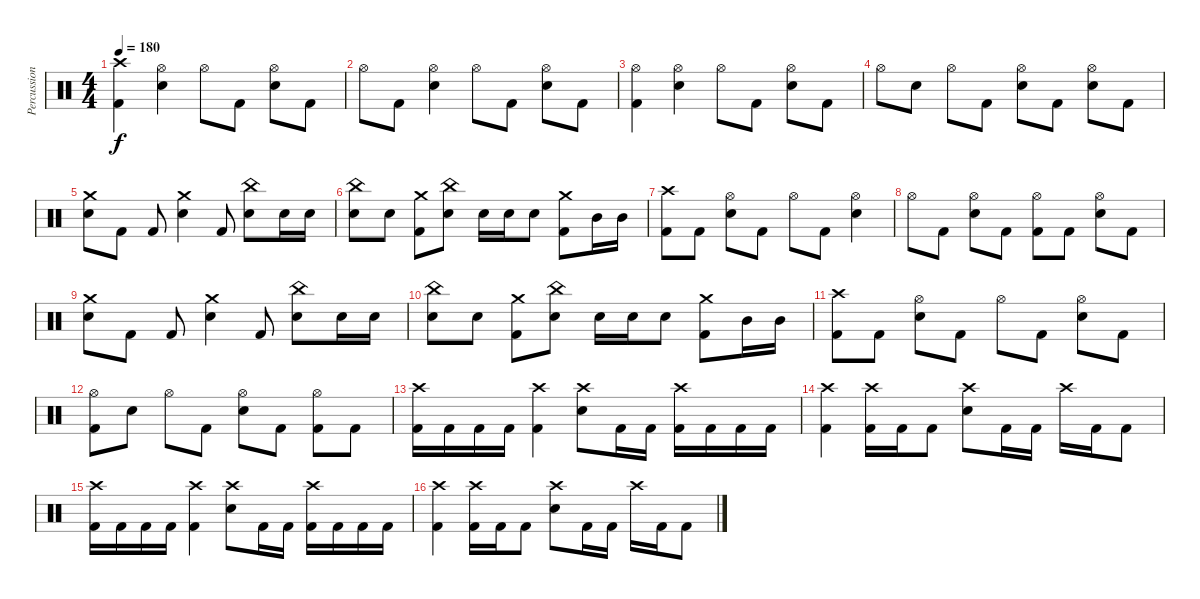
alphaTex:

\track ("Percussion" "Percussion") {instrument percussion}
\staff {score}
\articulation defaults
\ts (4 4)
\tempo 180
\clef neutral
\ks c
("Crash high (hit)" "Kick (hit) 2").4{dy f} ("Hi-Hat (open)" "Electric Snare (hit)").4 "Hi-Hat (open)".8 "Kick (hit) 2".8 ("Hi-Hat (open)" "Electric Snare (hit)").8 "Kick (hit) 2".8 |
"Hi-Hat (open)".8 "Kick (hit) 2".8 ("Hi-Hat (open)" "Electric Snare (hit)").4 "Hi-Hat (open)".8 "Kick (hit) 2".8 ("Hi-Hat (open)" "Electric Snare (hit)").8 "Kick (hit) 2".8 |
("Hi-Hat (open)" "Kick (hit) 2").4 ("Hi-Hat (open)" "Electric Snare (hit)").4 "Hi-Hat (open)".8 "Kick (hit) 2".8 ("Hi-Hat (open)" "Electric Snare (hit)").8 "Kick (hit) 2".8 |
"Hi-Hat (open)".8 "Electric Snare (hit)".8 "Hi-Hat (open)".8 "Kick (hit) 2".8 ("Hi-Hat (open)" "Electric Snare (hit)").8 "Kick (hit) 2".8 ("Hi-Hat (open)" "Electric Snare (hit)").8 "Kick (hit) 2".8 |
("Crash medium (hit)" "Electric Snare (hit)").8 "Kick (hit) 2".8 "Kick (hit) 2".8 ("Crash medium (hit)" "Electric Snare (hit)").4 "Kick (hit) 2".8 ("China (hit)" "Electric Snare (hit)").8 "Electric Snare (hit)".16 "Electric Snare (hit)".16 |
("China (hit)" "Electric Snare (hit)").8 "Electric Snare (hit)".8 ("Crash medium (hit)" "Kick (hit) 2").8 ("China (hit)" "Electric Snare (hit)").8 "Electric Snare (hit)".16 "Electric Snare (hit)".16 "Electric Snare (hit)".8 ("Crash medium (hit)" "Kick (hit) 2").8 "Mid Tom (hit)".16 "Mid Tom (hit)".16 |
("Crash high (hit)" "Kick (hit) 2").8 "Kick (hit) 2".8 ("Hi-Hat (open)" "Electric Snare (hit)").8 "Kick (hit) 2".8 "Hi-Hat (open)".8 "Kick (hit) 2".8 ("Hi-Hat (open)" "Electric Snare (hit)").4 |
"Hi-Hat (open)".8 "Kick (hit) 2".8 ("Hi-Hat (open)" "Electric Snare (hit)").8 "Kick (hit) 2".8 ("Hi-Hat (open)" "Kick (hit) 2").8 "Kick (hit) 2".8 ("Hi-Hat (open)" "Electric Snare (hit)").8 "Kick (hit) 2".8 |
("Crash medium (hit)" "Electric Snare (hit)").8 "Kick (hit) 2".8 "Kick (hit) 2".8 ("Crash medium (hit)" "Electric Snare (hit)").4 "Kick (hit) 2".8 ("China (hit)" "Electric Snare (hit)").8 "Electric Snare (hit)".16 "Electric Snare (hit)".16 |
("China (hit)" "Electric Snare (hit)").8 "Electric Snare (hit)".8 ("Crash medium (hit)" "Kick (hit) 2").8 ("China (hit)" "Electric Snare (hit)").8 "Electric Snare (hit)".16 "Electric Snare (hit)".16 "Electric Snare (hit)".8 ("Crash medium (hit)" "Kick (hit) 2").8 "Mid Tom (hit)".16 "Mid Tom (hit)".16 |
("Crash high (hit)" "Kick (hit) 2").8 "Kick (hit) 2".8 ("Hi-Hat (open)" "Electric Snare (hit)").8 "Kick (hit) 2".8 "Hi-Hat (open)".8 "Kick (hit) 2".8 ("Hi-Hat (open)" "Electric Snare (hit)").8 "Kick (hit) 2".8 |
("Hi-Hat (open)" "Kick (hit) 2").8 "Electric Snare (hit)".8 "Hi-Hat (open)".8 "Kick (hit) 2".8 ("Hi-Hat (open)" "Electric Snare (hit)").8 "Kick (hit) 2".8 ("Hi-Hat (open)" "Kick (hit) 2").8 "Kick (hit) 2".8 |
("Crash high (hit)" "Kick (hit) 2").16 "Kick (hit) 2".16 "Kick (hit) 2".16 "Kick (hit) 2".16 ("Crash high (hit)" "Kick (hit) 2").4 ("Crash high (hit)" "Electric Snare (hit)").8 "Kick (hit) 2".16 "Kick (hit) 2".16 ("Crash high (hit)" "Kick (hit) 2").16 "Kick (hit) 2".16 "Kick (hit) 2".16 "Kick (hit) 2".16 |
("Crash high (hit)" "Kick (hit) 2").4 ("Crash high (hit)" "Kick (hit) 2").16 "Kick (hit) 2".16 "Kick (hit) 2".8 ("Crash high (hit)" "Electric Snare (hit)").8 "Kick (hit) 2".16 "Kick (hit) 2".16 "Crash high (hit)".16 "Kick (hit) 2".16 "Kick (hit) 2".8 |
("Crash high (hit)" "Kick (hit) 2").16 "Kick (hit) 2".16 "Kick (hit) 2".16 "Kick (hit) 2".16 ("Crash high (hit)" "Kick (hit) 2").4 ("Crash high (hit)" "Electric Snare (hit)").8 "Kick (hit) 2".16 "Kick (hit) 2".16 ("Crash high (hit)" "Kick (hit) 2").16 "Kick (hit) 2".16 "Kick (hit) 2".16 "Kick (hit) 2".16 |
("Crash high (hit)" "Kick (hit) 2").4 ("Crash high (hit)" "Kick (hit) 2").16 "Kick (hit) 2".16 "Kick (hit) 2".8 ("Crash high (hit)" "Electric Snare (hit)").8 "Kick (hit) 2".16 "Kick (hit) 2".16 "Crash high (hit)".16 "Kick (hit) 2".16 "Kick (hit) 2".8
